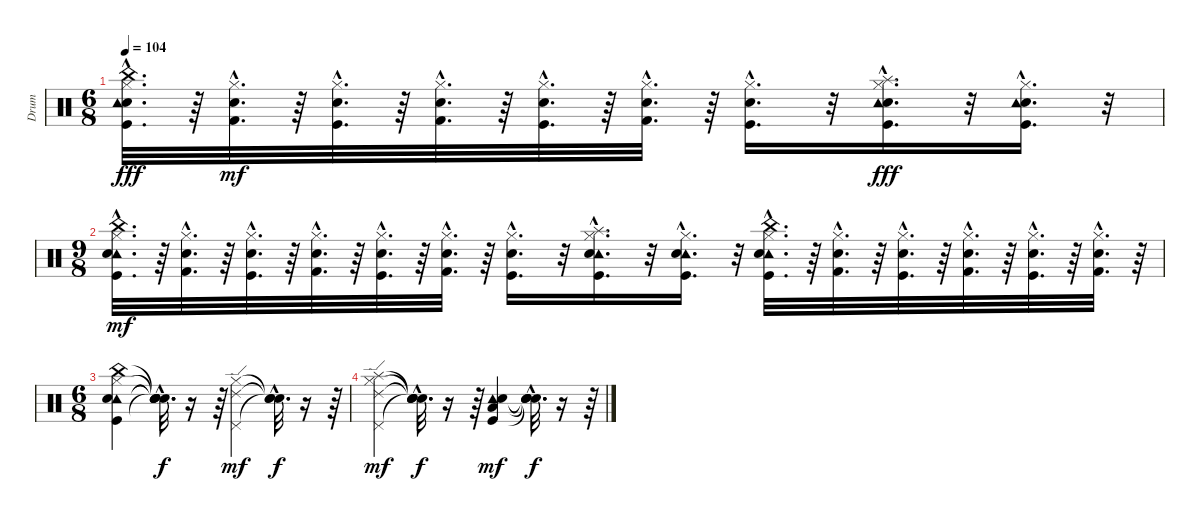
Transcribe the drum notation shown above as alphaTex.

\track ("Drum" "Drum") {instrument percussion}
\staff {score}
\articulation defaults
\ts (6 8)
\tempo 104
\clef neutral
\ks c
("China (hit)"{hac} "Hi-Hat (closed)"{hac} "Kick (hit)"{hac} "Snare (hit) 2"{hac} "Tambourine (hit)"{hac}).32{d dy fff} r.64 ("Hi-Hat (closed)"{hac} "Kick (hit) 2"{hac} "Electric Snare (hit)"{hac}).32{d dy mf} r.64 ("Hi-Hat (closed)"{hac} "Kick (hit)"{hac} "Snare (hit) 2"{hac}).32{d} r.64 ("Hi-Hat (closed)"{hac} "Kick (hit) 2"{hac} "Electric Snare (hit)"{hac}).32{d} r.64 ("Hi-Hat (closed)"{hac} "Kick (hit)"{hac} "Snare (hit) 2"{hac}).32{d} r.64 ("Hi-Hat (closed)"{hac} "Kick (hit) 2"{hac} "Electric Snare (hit)"{hac}).32{d} r.64 ("Hi-Hat (closed)"{hac} "Kick (hit)"{hac} "Snare (hit) 2"{hac}).16{d} r.32 ("Hi-Hat (closed)"{hac} "Kick (hit)"{hac} "Splash (hit)"{hac} "Snare (hit) 2"{hac} "Tambourine (hit)"{hac}).16{d dy fff} r.32 ("Hi-Hat (closed)"{hac} "Kick (hit)"{hac} "Snare (hit) 2"{hac} "Tambourine (hit)"{hac}).16{d} r.32 |
\ts (9 8)
("Tambourine (hit)"{hac} "Snare (hit) 2"{hac} "China (hit)"{hac} "Kick (hit)"{hac} "Hi-Hat (closed)"{hac}).32{d dy mf} r.64 ("Kick (hit) 2"{hac} "Hi-Hat (closed)"{hac} "Electric Snare (hit)"{hac}).32{d} r.64 ("Snare (hit) 2"{hac} "Kick (hit)"{hac} "Hi-Hat (closed)"{hac}).32{d} r.64 ("Electric Snare (hit)"{hac} "Kick (hit) 2"{hac} "Hi-Hat (closed)"{hac}).32{d} r.64 ("Hi-Hat (closed)"{hac} "Kick (hit)"{hac} "Snare (hit) 2"{hac}).32{d} r.64 ("Electric Snare (hit)"{hac} "Kick (hit) 2"{hac} "Hi-Hat (closed)"{hac}).32{d} r.64 ("Snare (hit) 2"{hac} "Hi-Hat (closed)"{hac} "Kick (hit)"{hac}).16{d} r.32 ("Tambourine (hit)"{hac} "Snare (hit) 2"{hac} "Splash (hit)"{hac} "Kick (hit)"{hac} "Hi-Hat (closed)"{hac}).16{d} r.32 ("Tambourine (hit)"{hac} "Snare (hit) 2"{hac} "Kick (hit)"{hac} "Hi-Hat (closed)"{hac}).16{d} r.32 ("China (hit)"{hac} "Hi-Hat (closed)"{hac} "Tambourine (hit)"{hac} "Kick (hit)"{hac} "Snare (hit) 2"{hac}).32{d} r.64 ("Electric Snare (hit)"{hac} "Kick (hit) 2"{hac} "Hi-Hat (closed)"{hac}).32{d} r.64 ("Snare (hit) 2"{hac} "Kick (hit)"{hac} "Hi-Hat (closed)"{hac}).32{d} r.64 ("Electric Snare (hit)"{hac} "Kick (hit) 2"{hac} "Hi-Hat (closed)"{hac}).32{d} r.64 ("Hi-Hat (closed)"{hac} "Kick (hit)"{hac} "Snare (hit) 2"{hac}).32{d} r.64 ("Hi-Hat (closed)"{hac} "Kick (hit) 2"{hac} "Electric Snare (hit)"{hac}).32{d} r.64 |
\ts (6 8)
("Tambourine (hit)" "China (hit)" "Hi-Hat (closed)" "Snare (hit) 2" "Kick (hit)").4 ("Snare (hit)"{hac t} "Snare (hit)"{hac t} "Snare (hit)"{hac t} "Snare (hit)"{hac t} "Snare (hit)"{hac t}).32{d dy f} r.16 r.64 ("Ride (edge) 2" "Pedal Hi-Hat (hit)" "Hi-Hat (closed)").4{dy mf} ("Snare (hit)"{hac t} "Snare (hit)"{hac t} "Snare (hit)"{hac t}).32{d dy f} r.16 r.64 |
("Ride (edge) 2" "Pedal Hi-Hat (hit)" "Hi-Hat (closed)" "Splash (hit)").4{dy mf} ("Snare (hit)"{hac t} "Snare (hit)"{hac t} "Snare (hit)"{hac t} "Snare (hit)"{hac t}).32{d dy f} r.16 r.64 ("Kick (hit)" "Low Tom (hit)" "Tambourine (hit)" "Snare (hit) 2").4{dy mf} ("Snare (hit)"{hac t} "Snare (hit)"{hac t} "Snare (hit)"{hac t} "Snare (hit)"{hac t}).32{d dy f} r.16 r.64
